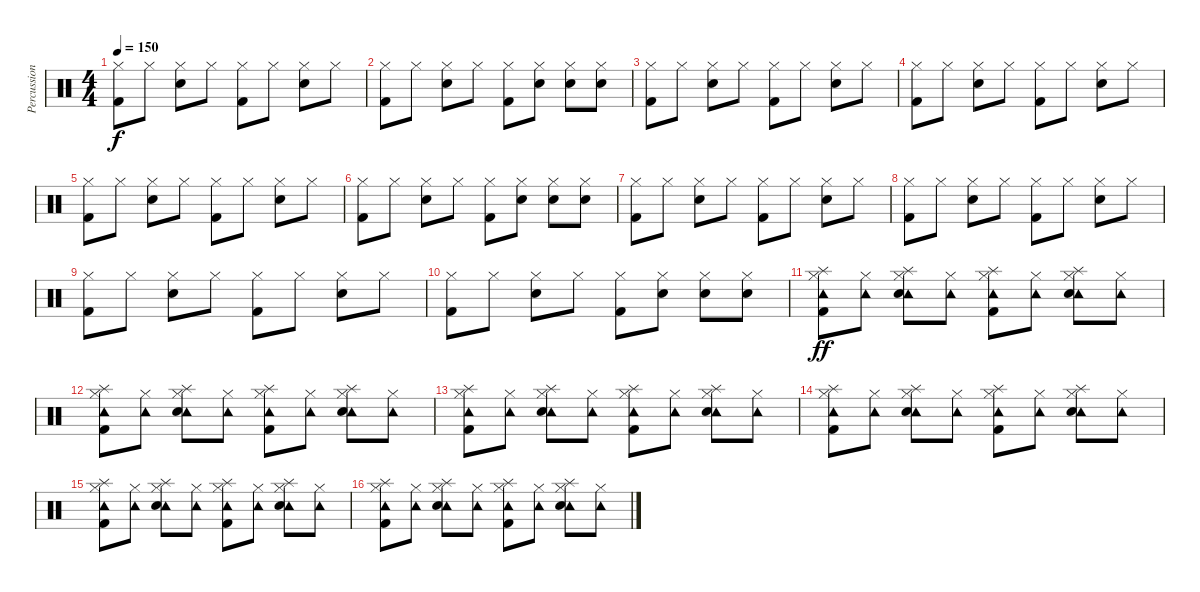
\track ("Percussion" "Percussion") {instrument percussion}
\staff {score}
\articulation defaults
\ts (4 4)
\tempo 150
\clef neutral
\ks c
("Hi-Hat (closed)" "Kick (hit) 2").8{dy f} "Hi-Hat (closed)".8 ("Hi-Hat (closed)" "Electric Snare (hit)").8 "Hi-Hat (closed)".8 ("Hi-Hat (closed)" "Kick (hit) 2").8 "Hi-Hat (closed)".8 ("Hi-Hat (closed)" "Electric Snare (hit)").8 "Hi-Hat (closed)".8 |
("Hi-Hat (closed)" "Kick (hit) 2").8 "Hi-Hat (closed)".8 ("Hi-Hat (closed)" "Electric Snare (hit)").8 "Hi-Hat (closed)".8 ("Hi-Hat (closed)" "Kick (hit) 2").8 ("Hi-Hat (closed)" "Hand Clap (hit)").8 ("Hi-Hat (closed)" "Electric Snare (hit)").8 ("Hi-Hat (closed)" "Hand Clap (hit)").8 |
("Hi-Hat (closed)" "Kick (hit) 2").8 "Hi-Hat (closed)".8 ("Hi-Hat (closed)" "Electric Snare (hit)").8 "Hi-Hat (closed)".8 ("Hi-Hat (closed)" "Kick (hit) 2").8 "Hi-Hat (closed)".8 ("Hi-Hat (closed)" "Electric Snare (hit)").8 "Hi-Hat (closed)".8 |
("Hi-Hat (closed)" "Kick (hit) 2").8 "Hi-Hat (closed)".8 ("Hi-Hat (closed)" "Electric Snare (hit)").8 "Hi-Hat (closed)".8 ("Hi-Hat (closed)" "Kick (hit) 2").8 "Hi-Hat (closed)".8 ("Hi-Hat (closed)" "Electric Snare (hit)").8 "Hi-Hat (closed)".8 |
("Hi-Hat (closed)" "Kick (hit) 2").8 "Hi-Hat (closed)".8 ("Hi-Hat (closed)" "Electric Snare (hit)").8 "Hi-Hat (closed)".8 ("Hi-Hat (closed)" "Kick (hit) 2").8 "Hi-Hat (closed)".8 ("Hi-Hat (closed)" "Electric Snare (hit)").8 "Hi-Hat (closed)".8 |
("Hi-Hat (closed)" "Kick (hit) 2").8 "Hi-Hat (closed)".8 ("Hi-Hat (closed)" "Electric Snare (hit)").8 "Hi-Hat (closed)".8 ("Hi-Hat (closed)" "Kick (hit) 2").8 ("Hi-Hat (closed)" "Hand Clap (hit)").8 ("Hi-Hat (closed)" "Electric Snare (hit)").8 ("Hi-Hat (closed)" "Hand Clap (hit)").8 |
("Hi-Hat (closed)" "Kick (hit) 2").8 "Hi-Hat (closed)".8 ("Hi-Hat (closed)" "Electric Snare (hit)").8 "Hi-Hat (closed)".8 ("Hi-Hat (closed)" "Kick (hit) 2").8 "Hi-Hat (closed)".8 ("Hi-Hat (closed)" "Electric Snare (hit)").8 "Hi-Hat (closed)".8 |
("Hi-Hat (closed)" "Kick (hit) 2").8 "Hi-Hat (closed)".8 ("Hi-Hat (closed)" "Electric Snare (hit)").8 "Hi-Hat (closed)".8 ("Hi-Hat (closed)" "Kick (hit) 2").8 "Hi-Hat (closed)".8 ("Hi-Hat (closed)" "Electric Snare (hit)").8 "Hi-Hat (closed)".8 |
("Hi-Hat (closed)" "Kick (hit) 2").8 "Hi-Hat (closed)".8 ("Hi-Hat (closed)" "Electric Snare (hit)").8 "Hi-Hat (closed)".8 ("Hi-Hat (closed)" "Kick (hit) 2").8 "Hi-Hat (closed)".8 ("Hi-Hat (closed)" "Electric Snare (hit)").8 "Hi-Hat (closed)".8 |
("Hi-Hat (closed)" "Kick (hit) 2").8 "Hi-Hat (closed)".8 ("Hi-Hat (closed)" "Electric Snare (hit)").8 "Hi-Hat (closed)".8 ("Hi-Hat (closed)" "Kick (hit) 2").8 ("Hi-Hat (closed)" "Hand Clap (hit)").8 ("Hi-Hat (closed)" "Electric Snare (hit)").8 ("Hi-Hat (closed)" "Hand Clap (hit)").8 |
("Hi-Hat (closed)" "Tambourine (hit)" "Kick (hit) 2" "Splash (hit)").8{dy ff} ("Hi-Hat (closed)" "Tambourine (hit)").8 ("Hi-Hat (closed)" "Tambourine (hit)" "Electric Snare (hit)" "Splash (hit)").8 ("Hi-Hat (closed)" "Tambourine (hit)").8 ("Hi-Hat (closed)" "Tambourine (hit)" "Kick (hit) 2" "Splash (hit)").8 ("Hi-Hat (closed)" "Tambourine (hit)").8 ("Hi-Hat (closed)" "Tambourine (hit)" "Electric Snare (hit)" "Splash (hit)").8 ("Hi-Hat (closed)" "Tambourine (hit)").8 |
("Hi-Hat (closed)" "Tambourine (hit)" "Kick (hit) 2" "Splash (hit)").8 ("Hi-Hat (closed)" "Tambourine (hit)").8 ("Hi-Hat (closed)" "Tambourine (hit)" "Electric Snare (hit)" "Splash (hit)").8 ("Hi-Hat (closed)" "Tambourine (hit)").8 ("Hi-Hat (closed)" "Tambourine (hit)" "Kick (hit) 2" "Splash (hit)").8 ("Hi-Hat (closed)" "Tambourine (hit)").8 ("Hi-Hat (closed)" "Tambourine (hit)" "Electric Snare (hit)" "Splash (hit)").8 ("Hi-Hat (closed)" "Tambourine (hit)").8 |
("Hi-Hat (closed)" "Tambourine (hit)" "Kick (hit) 2" "Splash (hit)").8 ("Hi-Hat (closed)" "Tambourine (hit)").8 ("Hi-Hat (closed)" "Tambourine (hit)" "Electric Snare (hit)" "Splash (hit)").8 ("Hi-Hat (closed)" "Tambourine (hit)").8 ("Hi-Hat (closed)" "Tambourine (hit)" "Kick (hit) 2" "Splash (hit)").8 ("Hi-Hat (closed)" "Tambourine (hit)").8 ("Hi-Hat (closed)" "Tambourine (hit)" "Electric Snare (hit)" "Splash (hit)").8 ("Hi-Hat (closed)" "Tambourine (hit)").8 |
("Hi-Hat (closed)" "Tambourine (hit)" "Kick (hit) 2" "Splash (hit)").8 ("Hi-Hat (closed)" "Tambourine (hit)").8 ("Hi-Hat (closed)" "Tambourine (hit)" "Electric Snare (hit)" "Splash (hit)").8 ("Hi-Hat (closed)" "Tambourine (hit)").8 ("Hi-Hat (closed)" "Tambourine (hit)" "Kick (hit) 2" "Splash (hit)").8 ("Hi-Hat (closed)" "Tambourine (hit)").8 ("Hi-Hat (closed)" "Tambourine (hit)" "Electric Snare (hit)" "Splash (hit)").8 ("Hi-Hat (closed)" "Tambourine (hit)").8 |
("Hi-Hat (closed)" "Tambourine (hit)" "Kick (hit) 2" "Splash (hit)").8 ("Hi-Hat (closed)" "Tambourine (hit)").8 ("Hi-Hat (closed)" "Tambourine (hit)" "Electric Snare (hit)" "Splash (hit)").8 ("Hi-Hat (closed)" "Tambourine (hit)").8 ("Hi-Hat (closed)" "Tambourine (hit)" "Kick (hit) 2" "Splash (hit)").8 ("Hi-Hat (closed)" "Tambourine (hit)").8 ("Hi-Hat (closed)" "Tambourine (hit)" "Electric Snare (hit)" "Splash (hit)").8 ("Hi-Hat (closed)" "Tambourine (hit)").8 |
("Hi-Hat (closed)" "Tambourine (hit)" "Kick (hit) 2" "Splash (hit)").8 ("Hi-Hat (closed)" "Tambourine (hit)").8 ("Hi-Hat (closed)" "Tambourine (hit)" "Electric Snare (hit)" "Splash (hit)").8 ("Hi-Hat (closed)" "Tambourine (hit)").8 ("Hi-Hat (closed)" "Tambourine (hit)" "Kick (hit) 2" "Splash (hit)").8 ("Hi-Hat (closed)" "Tambourine (hit)").8 ("Hi-Hat (closed)" "Tambourine (hit)" "Electric Snare (hit)" "Splash (hit)").8 ("Hi-Hat (closed)" "Tambourine (hit)").8
